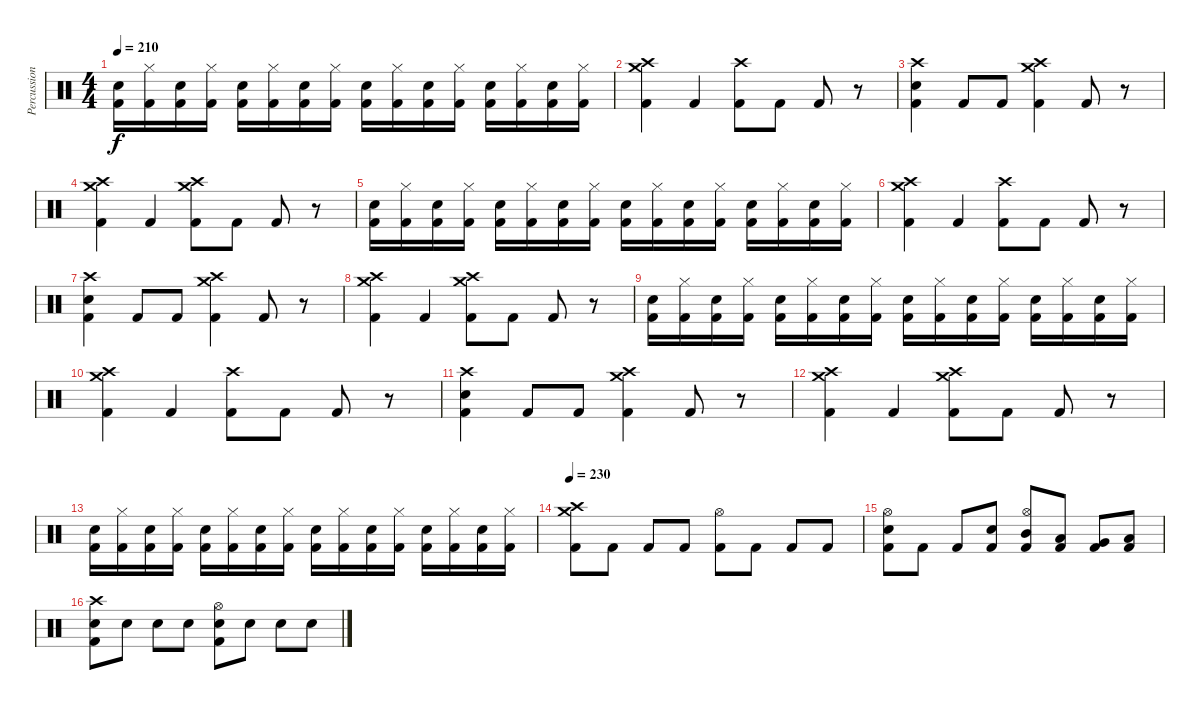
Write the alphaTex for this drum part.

\track ("Percussion" "Percussion") {instrument percussion}
\staff {score}
\articulation defaults
\ts (4 4)
\tempo 210
\clef neutral
\ks c
("Electric Snare (hit)" "Kick (hit) 2").16{dy f} ("Hi-Hat (closed)" "Kick (hit) 2").16 ("Electric Snare (hit)" "Kick (hit) 2").16 ("Hi-Hat (closed)" "Kick (hit) 2").16 ("Electric Snare (hit)" "Kick (hit) 2").16 ("Hi-Hat (closed)" "Kick (hit) 2").16 ("Electric Snare (hit)" "Kick (hit) 2").16 ("Hi-Hat (closed)" "Kick (hit) 2").16 ("Electric Snare (hit)" "Kick (hit) 2").16 ("Hi-Hat (closed)" "Kick (hit) 2").16 ("Electric Snare (hit)" "Kick (hit) 2").16 ("Hi-Hat (closed)" "Kick (hit) 2").16 ("Electric Snare (hit)" "Kick (hit) 2").16 ("Hi-Hat (closed)" "Kick (hit) 2").16 ("Electric Snare (hit)" "Kick (hit) 2").16 ("Hi-Hat (closed)" "Kick (hit) 2").16 |
("Crash medium (hit)" "Crash high (hit)" "Kick (hit) 2").4 "Kick (hit) 2".4 ("Crash high (hit)" "Kick (hit) 2").8 "Kick (hit) 2".8 "Kick (hit) 2".8 r.8 |
("Crash high (hit)" "Electric Snare (hit)" "Kick (hit) 2").4 "Kick (hit) 2".8 "Kick (hit) 2".8 ("Crash medium (hit)" "Crash high (hit)" "Kick (hit) 2").4 "Kick (hit) 2".8 r.8 |
("Crash medium (hit)" "Crash high (hit)" "Kick (hit) 2").4 "Kick (hit) 2".4 ("Crash medium (hit)" "Crash high (hit)" "Kick (hit) 2").8 "Kick (hit) 2".8 "Kick (hit) 2".8 r.8 |
("Electric Snare (hit)" "Kick (hit) 2").16 ("Hi-Hat (closed)" "Kick (hit) 2").16 ("Electric Snare (hit)" "Kick (hit) 2").16 ("Hi-Hat (closed)" "Kick (hit) 2").16 ("Electric Snare (hit)" "Kick (hit) 2").16 ("Hi-Hat (closed)" "Kick (hit) 2").16 ("Electric Snare (hit)" "Kick (hit) 2").16 ("Hi-Hat (closed)" "Kick (hit) 2").16 ("Electric Snare (hit)" "Kick (hit) 2").16 ("Hi-Hat (closed)" "Kick (hit) 2").16 ("Electric Snare (hit)" "Kick (hit) 2").16 ("Hi-Hat (closed)" "Kick (hit) 2").16 ("Electric Snare (hit)" "Kick (hit) 2").16 ("Hi-Hat (closed)" "Kick (hit) 2").16 ("Electric Snare (hit)" "Kick (hit) 2").16 ("Hi-Hat (closed)" "Kick (hit) 2").16 |
("Crash medium (hit)" "Crash high (hit)" "Kick (hit) 2").4 "Kick (hit) 2".4 ("Crash high (hit)" "Kick (hit) 2").8 "Kick (hit) 2".8 "Kick (hit) 2".8 r.8 |
("Crash high (hit)" "Electric Snare (hit)" "Kick (hit) 2").4 "Kick (hit) 2".8 "Kick (hit) 2".8 ("Crash medium (hit)" "Crash high (hit)" "Kick (hit) 2").4 "Kick (hit) 2".8 r.8 |
("Crash medium (hit)" "Crash high (hit)" "Kick (hit) 2").4 "Kick (hit) 2".4 ("Crash medium (hit)" "Crash high (hit)" "Kick (hit) 2").8 "Kick (hit) 2".8 "Kick (hit) 2".8 r.8 |
("Electric Snare (hit)" "Kick (hit) 2").16 ("Hi-Hat (closed)" "Kick (hit) 2").16 ("Electric Snare (hit)" "Kick (hit) 2").16 ("Hi-Hat (closed)" "Kick (hit) 2").16 ("Electric Snare (hit)" "Kick (hit) 2").16 ("Hi-Hat (closed)" "Kick (hit) 2").16 ("Electric Snare (hit)" "Kick (hit) 2").16 ("Hi-Hat (closed)" "Kick (hit) 2").16 ("Electric Snare (hit)" "Kick (hit) 2").16 ("Hi-Hat (closed)" "Kick (hit) 2").16 ("Electric Snare (hit)" "Kick (hit) 2").16 ("Hi-Hat (closed)" "Kick (hit) 2").16 ("Electric Snare (hit)" "Kick (hit) 2").16 ("Hi-Hat (closed)" "Kick (hit) 2").16 ("Electric Snare (hit)" "Kick (hit) 2").16 ("Hi-Hat (closed)" "Kick (hit) 2").16 |
("Crash medium (hit)" "Crash high (hit)" "Kick (hit) 2").4 "Kick (hit) 2".4 ("Crash high (hit)" "Kick (hit) 2").8 "Kick (hit) 2".8 "Kick (hit) 2".8 r.8 |
("Crash high (hit)" "Electric Snare (hit)" "Kick (hit) 2").4 "Kick (hit) 2".8 "Kick (hit) 2".8 ("Crash medium (hit)" "Crash high (hit)" "Kick (hit) 2").4 "Kick (hit) 2".8 r.8 |
("Crash medium (hit)" "Crash high (hit)" "Kick (hit) 2").4 "Kick (hit) 2".4 ("Crash medium (hit)" "Crash high (hit)" "Kick (hit) 2").8 "Kick (hit) 2".8 "Kick (hit) 2".8 r.8 |
("Electric Snare (hit)" "Kick (hit) 2").16 ("Hi-Hat (closed)" "Kick (hit) 2").16 ("Electric Snare (hit)" "Kick (hit) 2").16 ("Hi-Hat (closed)" "Kick (hit) 2").16 ("Electric Snare (hit)" "Kick (hit) 2").16 ("Hi-Hat (closed)" "Kick (hit) 2").16 ("Electric Snare (hit)" "Kick (hit) 2").16 ("Hi-Hat (closed)" "Kick (hit) 2").16 ("Electric Snare (hit)" "Kick (hit) 2").16 ("Hi-Hat (closed)" "Kick (hit) 2").16 ("Electric Snare (hit)" "Kick (hit) 2").16 ("Hi-Hat (closed)" "Kick (hit) 2").16 ("Electric Snare (hit)" "Kick (hit) 2").16 ("Hi-Hat (closed)" "Kick (hit) 2").16 ("Electric Snare (hit)" "Kick (hit) 2").16 ("Hi-Hat (closed)" "Kick (hit) 2").16 |
\tempo 230
("Crash medium (hit)" "Crash high (hit)" "Kick (hit) 2").8 "Kick (hit) 2".8 "Kick (hit) 2".8 "Kick (hit) 2".8 ("Hi-Hat (open)" "Kick (hit) 2").8 "Kick (hit) 2".8 "Kick (hit) 2".8 "Kick (hit) 2".8 |
("Hi-Hat (open)" "Electric Snare (hit)" "Kick (hit) 2").8 "Kick (hit) 2".8 "Kick (hit) 2".8 ("Electric Snare (hit)" "Kick (hit) 2").8 ("Hi-Hat (open)" "Mid Tom (hit)" "Kick (hit) 2").8 ("Low Tom (hit)" "Kick (hit) 2").8 ("Very Low Tom (hit)" "Kick (hit) 2").8 ("Low Floor Tom (hit)" "Kick (hit) 2").8 |
("Crash high (hit)" "Electric Snare (hit)" "Kick (hit) 2").8 "Electric Snare (hit)".8 "Electric Snare (hit)".8 "Electric Snare (hit)".8 ("Hi-Hat (open)" "Electric Snare (hit)" "Kick (hit) 2").8 "Electric Snare (hit)".8 "Electric Snare (hit)".8 "Electric Snare (hit)".8
